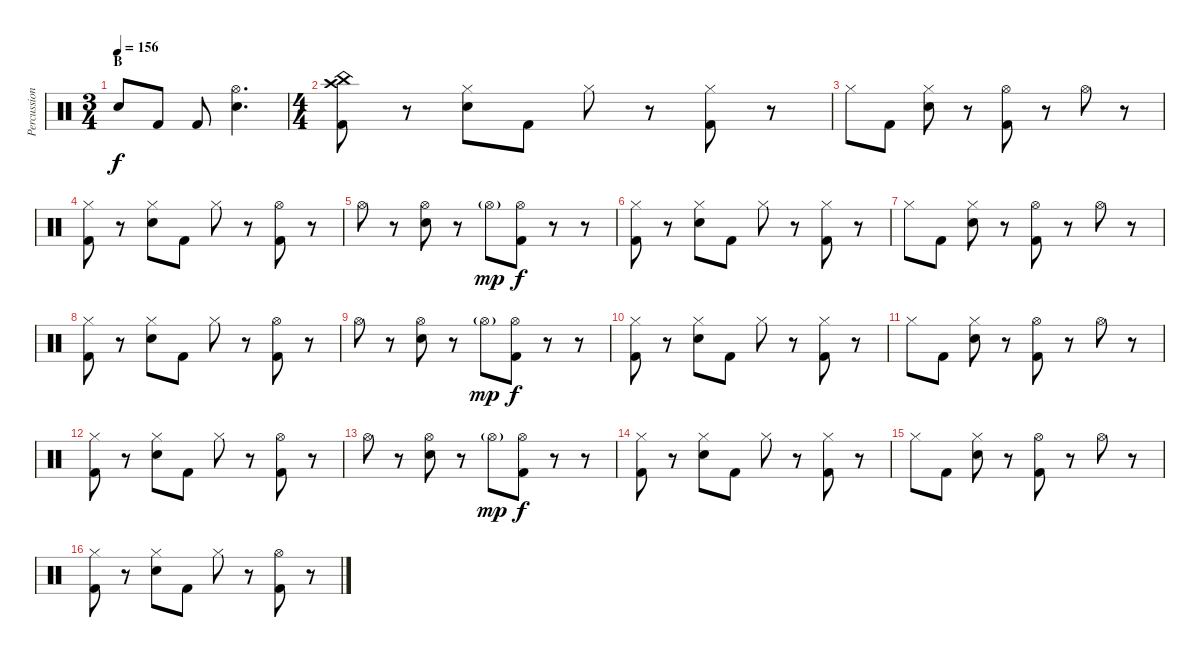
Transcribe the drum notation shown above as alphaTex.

\track ("Percussion" "Percussion") {instrument percussion}
\staff {score}
\articulation defaults
\ts (3 4)
\section ("" "B")
\tempo 156
\clef neutral
\ks c "Electric Snare (hit)".8{dy f} "Kick (hit) 2".8 "Kick (hit) 2".8
("Hi-Hat (open)" "Electric Snare (hit)").4{d} |
\ts (4 4)
("Crash high (hit)" "China (hit)" "Kick (hit) 2").8 r.8 ("Hi-Hat (closed)" "Electric Snare (hit)").8 "Kick (hit) 2".8 "Hi-Hat (closed)".8 r.8 ("Hi-Hat (closed)" "Kick (hit) 2").8 r.8 |
"Hi-Hat (closed)".8 "Kick (hit) 2".8 ("Hi-Hat (closed)" "Electric Snare (hit)").8 r.8 ("Hi-Hat (open)" "Kick (hit) 2").8 r.8 "Hi-Hat (open)".8 r.8 |
("Hi-Hat (closed)" "Kick (hit) 2").8 r.8 ("Hi-Hat (closed)" "Electric Snare (hit)").8 "Kick (hit) 2".8 "Hi-Hat (closed)".8 r.8 ("Hi-Hat (open)" "Kick (hit) 2").8 r.8 |
"Hi-Hat (open)".8 r.8 ("Hi-Hat (open)" "Electric Snare (hit)").8 r.8 "Hi-Hat (open)"{g}.8{dy mp} ("Hi-Hat (open)" "Kick (hit) 2").8{dy f} r.8 r.8 |
("Hi-Hat (closed)" "Kick (hit) 2").8 r.8 ("Hi-Hat (closed)" "Electric Snare (hit)").8 "Kick (hit) 2".8 "Hi-Hat (closed)".8 r.8 ("Hi-Hat (closed)" "Kick (hit) 2").8 r.8 |
"Hi-Hat (closed)".8 "Kick (hit) 2".8 ("Hi-Hat (closed)" "Electric Snare (hit)").8 r.8 ("Hi-Hat (open)" "Kick (hit) 2").8 r.8 "Hi-Hat (open)".8 r.8 |
("Hi-Hat (closed)" "Kick (hit) 2").8 r.8 ("Hi-Hat (closed)" "Electric Snare (hit)").8 "Kick (hit) 2".8 "Hi-Hat (closed)".8 r.8 ("Hi-Hat (open)" "Kick (hit) 2").8 r.8 |
"Hi-Hat (open)".8 r.8 ("Hi-Hat (open)" "Electric Snare (hit)").8 r.8 "Hi-Hat (open)"{g}.8{dy mp} ("Hi-Hat (open)" "Kick (hit) 2").8{dy f} r.8 r.8 |
("Hi-Hat (closed)" "Kick (hit) 2").8 r.8 ("Hi-Hat (closed)" "Electric Snare (hit)").8 "Kick (hit) 2".8 "Hi-Hat (closed)".8 r.8 ("Hi-Hat (closed)" "Kick (hit) 2").8 r.8 |
"Hi-Hat (closed)".8 "Kick (hit) 2".8 ("Hi-Hat (closed)" "Electric Snare (hit)").8 r.8 ("Hi-Hat (open)" "Kick (hit) 2").8 r.8 "Hi-Hat (open)".8 r.8 |
("Hi-Hat (closed)" "Kick (hit) 2").8 r.8 ("Hi-Hat (closed)" "Electric Snare (hit)").8 "Kick (hit) 2".8 "Hi-Hat (closed)".8 r.8 ("Hi-Hat (open)" "Kick (hit) 2").8 r.8 |
"Hi-Hat (open)".8 r.8 ("Hi-Hat (open)" "Electric Snare (hit)").8 r.8 "Hi-Hat (open)"{g}.8{dy mp} ("Hi-Hat (open)" "Kick (hit) 2").8{dy f} r.8 r.8 |
("Hi-Hat (closed)" "Kick (hit) 2").8 r.8 ("Hi-Hat (closed)" "Electric Snare (hit)").8 "Kick (hit) 2".8 "Hi-Hat (closed)".8 r.8 ("Hi-Hat (closed)" "Kick (hit) 2").8 r.8 |
"Hi-Hat (closed)".8 "Kick (hit) 2".8 ("Hi-Hat (closed)" "Electric Snare (hit)").8 r.8 ("Hi-Hat (open)" "Kick (hit) 2").8 r.8 "Hi-Hat (open)".8 r.8 |
("Hi-Hat (closed)" "Kick (hit) 2").8 r.8 ("Hi-Hat (closed)" "Electric Snare (hit)").8 "Kick (hit) 2".8 "Hi-Hat (closed)".8 r.8 ("Hi-Hat (open)" "Kick (hit) 2").8 r.8
